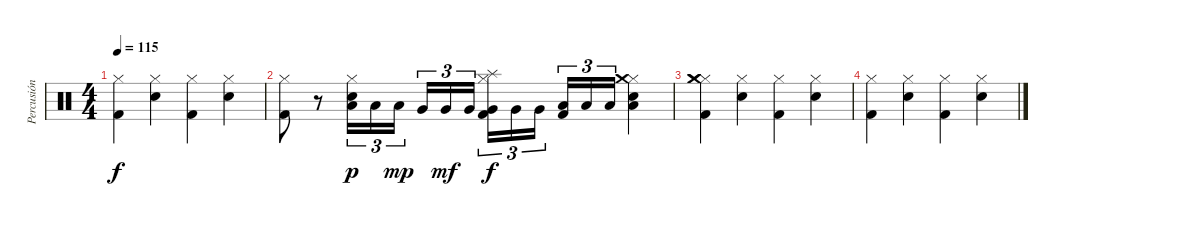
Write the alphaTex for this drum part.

\track ("Percusión" "Percusión") {instrument percussion}
\staff {score}
\articulation defaults
\ts (4 4)
\tempo 115
\clef neutral
\ks c
("Hi-Hat (closed)" "Kick (hit) 2").4{dy f} ("Hi-Hat (closed)" "Snare (hit) 2").4 ("Hi-Hat (closed)" "Kick (hit) 2").4 ("Hi-Hat (closed)" "Snare (hit) 2").4 |
("Hi-Hat (closed)" "Kick (hit) 2").8 r.8 ("Hi-Hat (closed)" "Low Tom (hit)" "Snare (hit) 2").16{tu (3 2) dy p} "Low Tom (hit)".16{tu (3 2)} "Low Tom (hit)".16{tu (3 2) dy mp} "Very Low Tom (hit)".16{tu (3 2)} "Very Low Tom (hit)".16{tu (3 2) dy mf} "Very Low Tom (hit)".16{tu (3 2)} ("Hi-Hat (closed)" "Very Low Tom (hit)" "Kick (hit) 2" "Splash (hit)").16{tu (3 2) dy f} "Very Low Tom (hit)".16{tu (3 2)} "Very Low Tom (hit)".16{tu (3 2)} ("Low Floor Tom (hit)" "Kick (hit) 2").16{tu (3 2)} "Low Floor Tom (hit)".16{tu (3 2)} "Low Floor Tom (hit)".16{tu (3 2)} ("Hi-Hat (closed)" "Snare (hit) 2" "Low Floor Tom (hit)" "Crash medium (hit)").4 |
("Hi-Hat (closed)" "Kick (hit) 2" "Crash medium (hit)" "Crash medium (hit)").4 ("Hi-Hat (closed)" "Snare (hit) 2").4 ("Hi-Hat (closed)" "Kick (hit) 2").4 ("Hi-Hat (closed)" "Snare (hit) 2").4 |
("Hi-Hat (closed)" "Kick (hit) 2").4 ("Hi-Hat (closed)" "Snare (hit) 2").4 ("Hi-Hat (closed)" "Kick (hit) 2").4 ("Hi-Hat (closed)" "Snare (hit) 2").4
